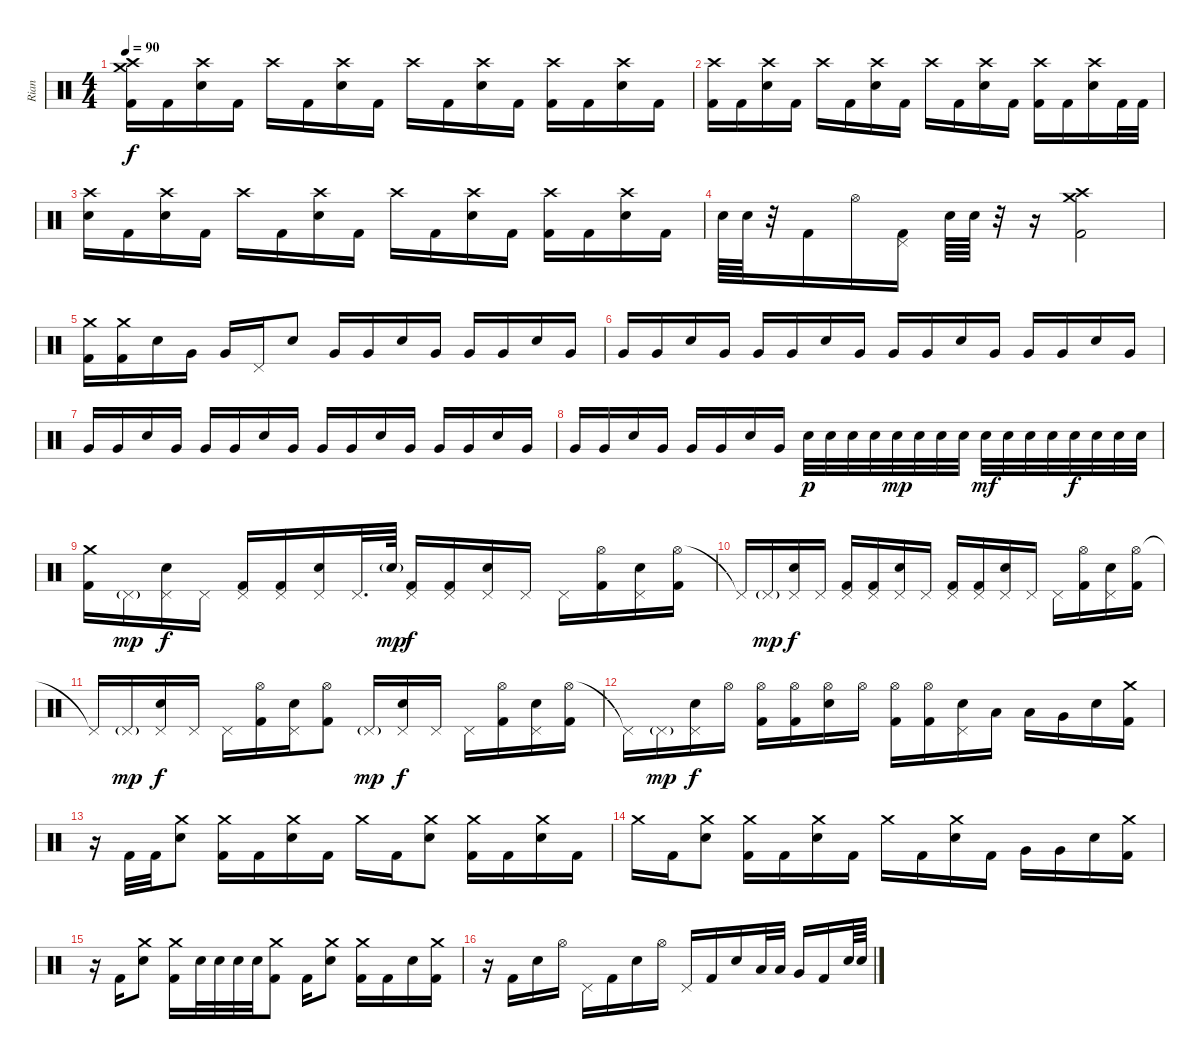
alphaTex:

\track ("Rian" "Rian") {instrument percussion bank 34}
\staff {score}
\articulation defaults
\ts (4 4)
\tempo 90
\clef neutral
\ks c
("Crash medium (hit)" "Crash high (hit)" "Kick (hit) 2").16{dy f} "Kick (hit) 2".16 ("Crash high (hit)" "Electric Snare (hit)").16 "Kick (hit) 2".16 "Crash high (hit)".16 "Kick (hit) 2".16 ("Crash high (hit)" "Electric Snare (hit)").16 "Kick (hit) 2".16 "Crash high (hit)".16 "Kick (hit) 2".16 ("Crash high (hit)" "Electric Snare (hit)").16 "Kick (hit) 2".16 ("Crash high (hit)" "Kick (hit) 2").16 "Kick (hit) 2".16 ("Crash high (hit)" "Electric Snare (hit)").16 "Kick (hit) 2".16 |
("Crash high (hit)" "Kick (hit) 2").16 "Kick (hit) 2".16 ("Crash high (hit)" "Electric Snare (hit)").16 "Kick (hit) 2".16 "Crash high (hit)".16 "Kick (hit) 2".16 ("Crash high (hit)" "Electric Snare (hit)").16 "Kick (hit) 2".16 "Crash high (hit)".16 "Kick (hit) 2".16 ("Crash high (hit)" "Electric Snare (hit)").16 "Kick (hit) 2".16 ("Crash high (hit)" "Kick (hit) 2").16 "Kick (hit) 2".16 ("Crash high (hit)" "Electric Snare (hit)").16 "Kick (hit) 2".32 "Kick (hit) 2".32 |
("Crash high (hit)" "Electric Snare (hit)").16 "Kick (hit) 2".16 ("Crash high (hit)" "Electric Snare (hit)").16 "Kick (hit) 2".16 "Crash high (hit)".16 "Kick (hit) 2".16 ("Crash high (hit)" "Electric Snare (hit)").16 "Kick (hit) 2".16 "Crash high (hit)".16 "Kick (hit) 2".16 ("Crash high (hit)" "Electric Snare (hit)").16 "Kick (hit) 2".16 ("Crash high (hit)" "Kick (hit) 2").16 "Kick (hit) 2".16 ("Crash high (hit)" "Electric Snare (hit)").16 "Kick (hit) 2".16 |
"Electric Snare (hit)".64 "Electric Snare (hit)".64 r.32 "Kick (hit) 2".16 "Hi-Hat (open)".16 ("Pedal Hi-Hat (hit)" "Kick (hit) 2").16 "Electric Snare (hit)".64 "Electric Snare (hit)".64 r.32 r.16 ("Crash medium (hit)" "Crash high (hit)" "Kick (hit) 2").2 |
("Crash medium (hit)" "Kick (hit) 2").16 ("Crash medium (hit)" "Kick (hit) 2").16 "Electric Snare (hit)".16 "Very Low Tom (hit)".16 "Very Low Tom (hit)".16 "Pedal Hi-Hat (hit)".16 "Electric Snare (hit)".8 "Very Low Tom (hit)".16 "Very Low Tom (hit)".16 "Electric Snare (hit)".16 "Very Low Tom (hit)".16 "Very Low Tom (hit)".16 "Very Low Tom (hit)".16 "Electric Snare (hit)".16 "Very Low Tom (hit)".16 |
"Very Low Tom (hit)".16 "Very Low Tom (hit)".16 "Electric Snare (hit)".16 "Very Low Tom (hit)".16 "Very Low Tom (hit)".16 "Very Low Tom (hit)".16 "Electric Snare (hit)".16 "Very Low Tom (hit)".16 "Very Low Tom (hit)".16 "Very Low Tom (hit)".16 "Electric Snare (hit)".16 "Very Low Tom (hit)".16 "Very Low Tom (hit)".16 "Very Low Tom (hit)".16 "Electric Snare (hit)".16 "Very Low Tom (hit)".16 |
"Very Low Tom (hit)".16 "Very Low Tom (hit)".16 "Electric Snare (hit)".16 "Very Low Tom (hit)".16 "Very Low Tom (hit)".16 "Very Low Tom (hit)".16 "Electric Snare (hit)".16 "Very Low Tom (hit)".16 "Very Low Tom (hit)".16 "Very Low Tom (hit)".16 "Electric Snare (hit)".16 "Very Low Tom (hit)".16 "Very Low Tom (hit)".16 "Very Low Tom (hit)".16 "Electric Snare (hit)".16 "Very Low Tom (hit)".16 |
"Very Low Tom (hit)".16 "Very Low Tom (hit)".16 "Electric Snare (hit)".16 "Very Low Tom (hit)".16 "Very Low Tom (hit)".16 "Very Low Tom (hit)".16 "Electric Snare (hit)".16 "Very Low Tom (hit)".16 "Electric Snare (hit)".32{dy p} "Electric Snare (hit)".32 "Electric Snare (hit)".32 "Electric Snare (hit)".32 "Electric Snare (hit)".32{dy mp} "Electric Snare (hit)".32 "Electric Snare (hit)".32 "Electric Snare (hit)".32 "Electric Snare (hit)".32{dy mf} "Electric Snare (hit)".32 "Electric Snare (hit)".32 "Electric Snare (hit)".32 "Electric Snare (hit)".32{dy f} "Electric Snare (hit)".32 "Electric Snare (hit)".32 "Electric Snare (hit)".32 |
("Crash medium (hit)" "Kick (hit) 2").16 "Pedal Hi-Hat (hit)"{g}.16{dy mp} ("Pedal Hi-Hat (hit)" "Electric Snare (hit)").16{dy f} "Pedal Hi-Hat (hit)".16 ("Pedal Hi-Hat (hit)" "Kick (hit) 2").16 ("Pedal Hi-Hat (hit)" "Kick (hit) 2").16 ("Pedal Hi-Hat (hit)" "Electric Snare (hit)").16 "Pedal Hi-Hat (hit)".32{d} "Electric Snare (hit)"{g}.64{dy mp} ("Pedal Hi-Hat (hit)" "Kick (hit) 2").16{dy f} ("Pedal Hi-Hat (hit)" "Kick (hit) 2").16 ("Pedal Hi-Hat (hit)" "Electric Snare (hit)").16 "Pedal Hi-Hat (hit)".16 "Pedal Hi-Hat (hit)".16 ("Hi-Hat (open)" "Kick (hit) 2").16 ("Pedal Hi-Hat (hit)" "Electric Snare (hit)").16 ("Hi-Hat (open)" "Kick (hit) 2").16 |
"Pedal Hi-Hat (hit)"{t}.16 "Pedal Hi-Hat (hit)"{g}.16{dy mp} ("Pedal Hi-Hat (hit)" "Electric Snare (hit)").16{dy f} "Pedal Hi-Hat (hit)".16 ("Pedal Hi-Hat (hit)" "Kick (hit) 2").16 ("Pedal Hi-Hat (hit)" "Kick (hit) 2").16 ("Pedal Hi-Hat (hit)" "Electric Snare (hit)").16 "Pedal Hi-Hat (hit)".16 ("Pedal Hi-Hat (hit)" "Kick (hit) 2").16 ("Pedal Hi-Hat (hit)" "Kick (hit) 2").16 ("Pedal Hi-Hat (hit)" "Electric Snare (hit)").16 "Pedal Hi-Hat (hit)".16 "Pedal Hi-Hat (hit)".16 ("Hi-Hat (open)" "Kick (hit) 2").16 ("Pedal Hi-Hat (hit)" "Electric Snare (hit)").16 ("Hi-Hat (open)" "Kick (hit) 2").16 |
"Pedal Hi-Hat (hit)"{t}.16 "Pedal Hi-Hat (hit)"{g}.16{dy mp} ("Pedal Hi-Hat (hit)" "Electric Snare (hit)").16{dy f} "Pedal Hi-Hat (hit)".16 "Pedal Hi-Hat (hit)".16 ("Hi-Hat (open)" "Kick (hit) 2").16 ("Pedal Hi-Hat (hit)" "Electric Snare (hit)").16 ("Hi-Hat (open)" "Kick (hit) 2").8 "Pedal Hi-Hat (hit)"{g}.16{dy mp} ("Pedal Hi-Hat (hit)" "Electric Snare (hit)").16{dy f} "Pedal Hi-Hat (hit)".16 "Pedal Hi-Hat (hit)".16 ("Hi-Hat (open)" "Kick (hit) 2").16 ("Pedal Hi-Hat (hit)" "Electric Snare (hit)").16 ("Hi-Hat (open)" "Kick (hit) 2").16 |
"Pedal Hi-Hat (hit)"{t}.16 "Pedal Hi-Hat (hit)"{g}.16{dy mp} ("Pedal Hi-Hat (hit)" "Electric Snare (hit)").16{dy f} "Hi-Hat (open)".16 ("Hi-Hat (open)" "Kick (hit) 2").16 ("Hi-Hat (open)" "Kick (hit) 2").16 ("Hi-Hat (open)" "Electric Snare (hit)").16 "Hi-Hat (open)".16 ("Hi-Hat (open)" "Kick (hit) 2").16 ("Hi-Hat (open)" "Kick (hit) 2").16 ("Pedal Hi-Hat (hit)" "Electric Snare (hit)").16 "Low Tom (hit)".16 "Low Tom (hit)".16 "Very Low Tom (hit)".16 "Electric Snare (hit)".16 ("Crash medium (hit)" "Kick (hit) 2").16 |
r.16 "Kick (hit) 2".32 "Kick (hit) 2".32 ("Crash medium (hit)" "Electric Snare (hit)").8 ("Crash medium (hit)" "Kick (hit) 2").16 "Kick (hit) 2".16 ("Crash medium (hit)" "Electric Snare (hit)").16 "Kick (hit) 2".16 "Crash medium (hit)".16 "Kick (hit) 2".16 ("Crash medium (hit)" "Electric Snare (hit)").8 ("Crash medium (hit)" "Kick (hit) 2").16 "Kick (hit) 2".16 ("Crash medium (hit)" "Electric Snare (hit)").16 "Kick (hit) 2".16 |
"Crash medium (hit)".16 "Kick (hit) 2".16 ("Crash medium (hit)" "Electric Snare (hit)").8 ("Crash medium (hit)" "Kick (hit) 2").16 "Kick (hit) 2".16 ("Crash medium (hit)" "Electric Snare (hit)").16 "Kick (hit) 2".16 "Crash medium (hit)".16 "Kick (hit) 2".16 ("Crash medium (hit)" "Electric Snare (hit)").16 "Kick (hit) 2".16 "Very Low Tom (hit)".16 "Very Low Tom (hit)".16 "Electric Snare (hit)".16 ("Crash medium (hit)" "Kick (hit) 2").16 |
r.16 "Kick (hit) 2".16 ("Crash medium (hit)" "Electric Snare (hit)").8 ("Crash medium (hit)" "Kick (hit) 2").16 "Electric Snare (hit)".32 "Electric Snare (hit)".32 "Electric Snare (hit)".32 "Electric Snare (hit)".32 ("Crash medium (hit)" "Kick (hit) 2").8 "Kick (hit) 2".16 ("Crash medium (hit)" "Electric Snare (hit)").8 ("Crash medium (hit)" "Kick (hit) 2").16 "Kick (hit) 2".16 "Electric Snare (hit)".16 ("Crash medium (hit)" "Kick (hit) 2").16 |
r.16 "Kick (hit) 2".16 "Electric Snare (hit)".16 "Hi-Hat (open)".16 "Pedal Hi-Hat (hit)".16 "Kick (hit) 2".16 "Electric Snare (hit)".16 "Hi-Hat (open)".16 "Pedal Hi-Hat (hit)".16 "Kick (hit) 2".16 "Electric Snare (hit)".16 "Low Tom (hit)".32 "Low Tom (hit)".32 "Very Low Tom (hit)".16 "Kick (hit) 2".16 "Electric Snare (hit)".64 "Electric Snare (hit)".64
